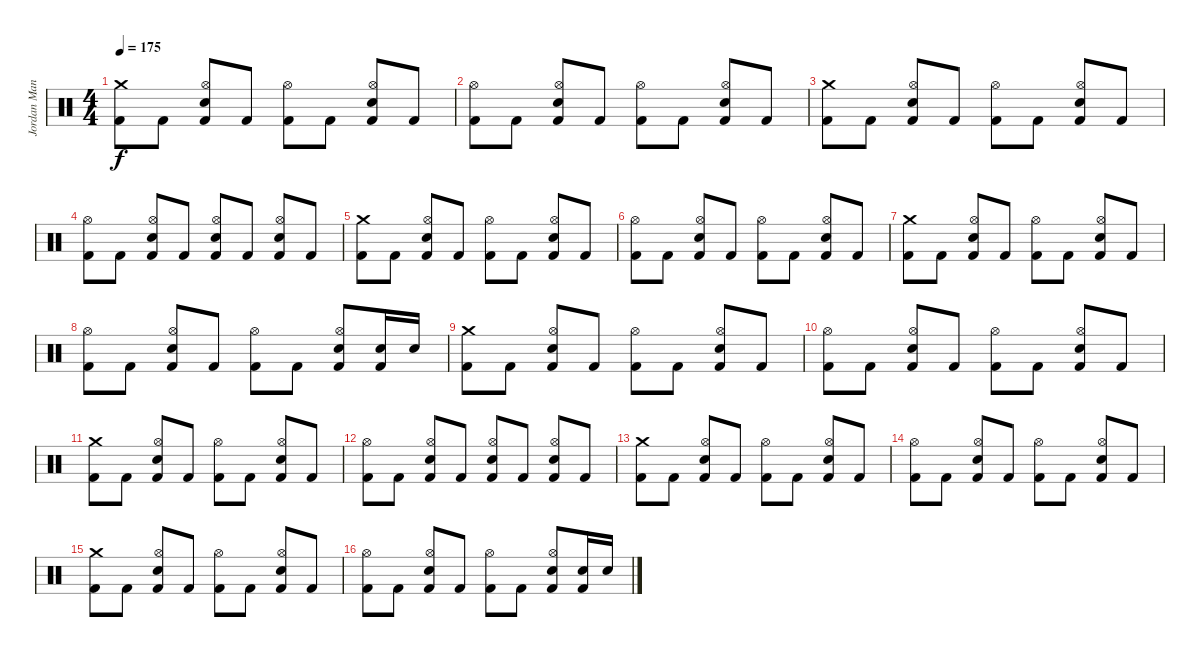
\track ("Jordan Mancino" "Jordan Man") {instrument percussion}
\staff {score}
\articulation defaults
\ts (4 4)
\tempo 175
\clef neutral
\ks c
("Crash medium (hit)" "Kick (hit) 2").8{dy f} "Kick (hit) 2".8 ("Hi-Hat (open)" "Electric Snare (hit)" "Kick (hit) 2").8 "Kick (hit) 2".8 ("Hi-Hat (open)" "Kick (hit) 2").8 "Kick (hit) 2".8 ("Hi-Hat (open)" "Electric Snare (hit)" "Kick (hit) 2").8 "Kick (hit) 2".8 |
("Hi-Hat (open)" "Kick (hit) 2").8 "Kick (hit) 2".8 ("Hi-Hat (open)" "Electric Snare (hit)" "Kick (hit) 2").8 "Kick (hit) 2".8 ("Hi-Hat (open)" "Kick (hit) 2").8 "Kick (hit) 2".8 ("Hi-Hat (open)" "Electric Snare (hit)" "Kick (hit) 2").8 "Kick (hit) 2".8 |
("Crash medium (hit)" "Kick (hit) 2").8 "Kick (hit) 2".8 ("Hi-Hat (open)" "Electric Snare (hit)" "Kick (hit) 2").8 "Kick (hit) 2".8 ("Hi-Hat (open)" "Kick (hit) 2").8 "Kick (hit) 2".8 ("Hi-Hat (open)" "Electric Snare (hit)" "Kick (hit) 2").8 "Kick (hit) 2".8 |
("Hi-Hat (open)" "Kick (hit) 2").8 "Kick (hit) 2".8 ("Hi-Hat (open)" "Electric Snare (hit)" "Kick (hit) 2").8 "Kick (hit) 2".8 ("Hi-Hat (open)" "Electric Snare (hit)" "Kick (hit) 2").8 "Kick (hit) 2".8 ("Hi-Hat (open)" "Electric Snare (hit)" "Kick (hit) 2").8 "Kick (hit) 2".8 |
("Crash medium (hit)" "Kick (hit) 2").8 "Kick (hit) 2".8 ("Hi-Hat (open)" "Electric Snare (hit)" "Kick (hit) 2").8 "Kick (hit) 2".8 ("Hi-Hat (open)" "Kick (hit) 2").8 "Kick (hit) 2".8 ("Hi-Hat (open)" "Electric Snare (hit)" "Kick (hit) 2").8 "Kick (hit) 2".8 |
("Hi-Hat (open)" "Kick (hit) 2").8 "Kick (hit) 2".8 ("Hi-Hat (open)" "Electric Snare (hit)" "Kick (hit) 2").8 "Kick (hit) 2".8 ("Hi-Hat (open)" "Kick (hit) 2").8 "Kick (hit) 2".8 ("Hi-Hat (open)" "Electric Snare (hit)" "Kick (hit) 2").8 "Kick (hit) 2".8 |
("Crash medium (hit)" "Kick (hit) 2").8 "Kick (hit) 2".8 ("Hi-Hat (open)" "Electric Snare (hit)" "Kick (hit) 2").8 "Kick (hit) 2".8 ("Hi-Hat (open)" "Kick (hit) 2").8 "Kick (hit) 2".8 ("Hi-Hat (open)" "Electric Snare (hit)" "Kick (hit) 2").8 "Kick (hit) 2".8 |
("Hi-Hat (open)" "Kick (hit) 2").8 "Kick (hit) 2".8 ("Hi-Hat (open)" "Electric Snare (hit)" "Kick (hit) 2").8 "Kick (hit) 2".8 ("Hi-Hat (open)" "Kick (hit) 2").8 "Kick (hit) 2".8 ("Hi-Hat (open)" "Electric Snare (hit)" "Kick (hit) 2").8 ("Electric Snare (hit)" "Kick (hit) 2").16 "Electric Snare (hit)".16 |
("Crash medium (hit)" "Kick (hit) 2").8 "Kick (hit) 2".8 ("Hi-Hat (open)" "Electric Snare (hit)" "Kick (hit) 2").8 "Kick (hit) 2".8 ("Hi-Hat (open)" "Kick (hit) 2").8 "Kick (hit) 2".8 ("Hi-Hat (open)" "Electric Snare (hit)" "Kick (hit) 2").8 "Kick (hit) 2".8 |
("Hi-Hat (open)" "Kick (hit) 2").8 "Kick (hit) 2".8 ("Hi-Hat (open)" "Electric Snare (hit)" "Kick (hit) 2").8 "Kick (hit) 2".8 ("Hi-Hat (open)" "Kick (hit) 2").8 "Kick (hit) 2".8 ("Hi-Hat (open)" "Electric Snare (hit)" "Kick (hit) 2").8 "Kick (hit) 2".8 |
("Crash medium (hit)" "Kick (hit) 2").8 "Kick (hit) 2".8 ("Hi-Hat (open)" "Electric Snare (hit)" "Kick (hit) 2").8 "Kick (hit) 2".8 ("Hi-Hat (open)" "Kick (hit) 2").8 "Kick (hit) 2".8 ("Hi-Hat (open)" "Electric Snare (hit)" "Kick (hit) 2").8 "Kick (hit) 2".8 |
("Hi-Hat (open)" "Kick (hit) 2").8 "Kick (hit) 2".8 ("Hi-Hat (open)" "Electric Snare (hit)" "Kick (hit) 2").8 "Kick (hit) 2".8 ("Hi-Hat (open)" "Electric Snare (hit)" "Kick (hit) 2").8 "Kick (hit) 2".8 ("Hi-Hat (open)" "Electric Snare (hit)" "Kick (hit) 2").8 "Kick (hit) 2".8 |
("Crash medium (hit)" "Kick (hit) 2").8 "Kick (hit) 2".8 ("Hi-Hat (open)" "Electric Snare (hit)" "Kick (hit) 2").8 "Kick (hit) 2".8 ("Hi-Hat (open)" "Kick (hit) 2").8 "Kick (hit) 2".8 ("Hi-Hat (open)" "Electric Snare (hit)" "Kick (hit) 2").8 "Kick (hit) 2".8 |
("Hi-Hat (open)" "Kick (hit) 2").8 "Kick (hit) 2".8 ("Hi-Hat (open)" "Electric Snare (hit)" "Kick (hit) 2").8 "Kick (hit) 2".8 ("Hi-Hat (open)" "Kick (hit) 2").8 "Kick (hit) 2".8 ("Hi-Hat (open)" "Electric Snare (hit)" "Kick (hit) 2").8 "Kick (hit) 2".8 |
("Crash medium (hit)" "Kick (hit) 2").8 "Kick (hit) 2".8 ("Hi-Hat (open)" "Electric Snare (hit)" "Kick (hit) 2").8 "Kick (hit) 2".8 ("Hi-Hat (open)" "Kick (hit) 2").8 "Kick (hit) 2".8 ("Hi-Hat (open)" "Electric Snare (hit)" "Kick (hit) 2").8 "Kick (hit) 2".8 |
("Hi-Hat (open)" "Kick (hit) 2").8 "Kick (hit) 2".8 ("Hi-Hat (open)" "Electric Snare (hit)" "Kick (hit) 2").8 "Kick (hit) 2".8 ("Hi-Hat (open)" "Kick (hit) 2").8 "Kick (hit) 2".8 ("Hi-Hat (open)" "Electric Snare (hit)" "Kick (hit) 2").8 ("Electric Snare (hit)" "Kick (hit) 2").16 "Electric Snare (hit)".16
